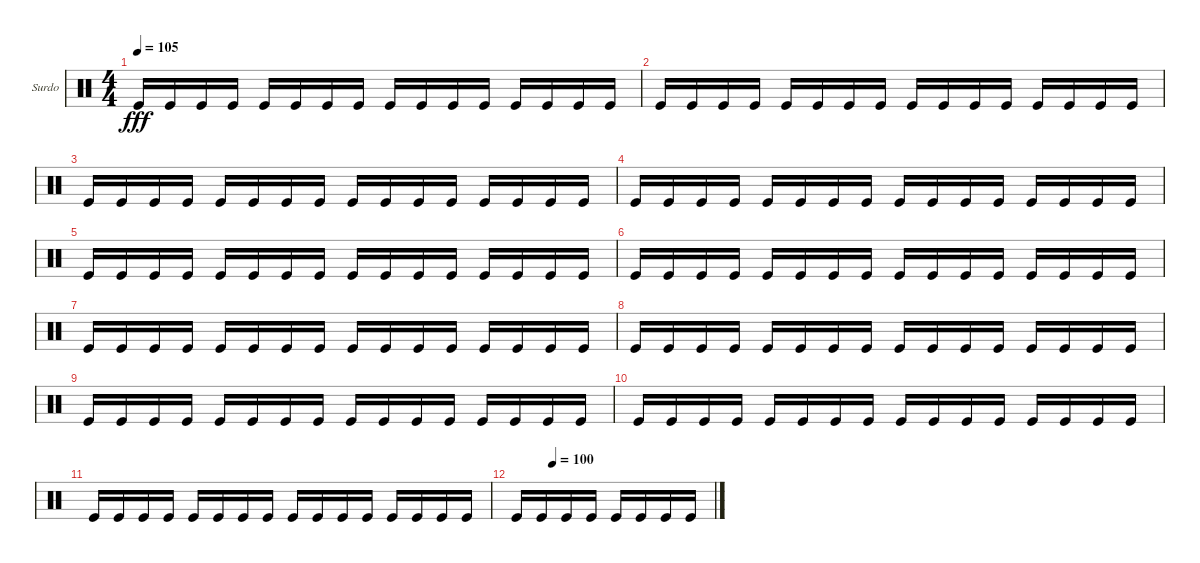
\bracketExtendMode groupsimilarinstruments
\firstSystemTrackNameOrientation horizontal
\otherSystemsTrackNameOrientation horizontal
\track ("Surdo" "Surdo") {instrument percussion}
\staff {score}
\articulation defaults
\ts (4 4)
\tempo 105
\clef neutral
\scale
0.333333
\ks c "Kick (hit)".16{dy fff} "Kick (hit)".16 "Kick (hit)".16 "Kick (hit)".16 "Kick (hit)".16 "Kick (hit)".16 "Kick (hit)".16 "Kick (hit)".16 "Kick (hit)".16 "Kick (hit)".16 "Kick (hit)".16 "Kick (hit)".16 "Kick (hit)".16 "Kick (hit)".16 "Kick (hit)".16 "Kick (hit)".16
|
\scale
0.333333 "Kick (hit)".16 "Kick (hit)".16 "Kick (hit)".16 "Kick (hit)".16 "Kick (hit)".16 "Kick (hit)".16 "Kick (hit)".16 "Kick (hit)".16 "Kick (hit)".16 "Kick (hit)".16 "Kick (hit)".16 "Kick (hit)".16 "Kick (hit)".16 "Kick (hit)".16 "Kick (hit)".16 "Kick (hit)".16 |
\scale
0.333333 "Kick (hit)".16 "Kick (hit)".16 "Kick (hit)".16 "Kick (hit)".16 "Kick (hit)".16 "Kick (hit)".16 "Kick (hit)".16 "Kick (hit)".16 "Kick (hit)".16 "Kick (hit)".16 "Kick (hit)".16 "Kick (hit)".16 "Kick (hit)".16 "Kick (hit)".16 "Kick (hit)".16 "Kick (hit)".16 |
\scale
0.333333 "Kick (hit)".16 "Kick (hit)".16 "Kick (hit)".16 "Kick (hit)".16 "Kick (hit)".16 "Kick (hit)".16 "Kick (hit)".16 "Kick (hit)".16 "Kick (hit)".16 "Kick (hit)".16 "Kick (hit)".16 "Kick (hit)".16 "Kick (hit)".16 "Kick (hit)".16 "Kick (hit)".16 "Kick (hit)".16 |
\scale
0.333333 "Kick (hit)".16 "Kick (hit)".16 "Kick (hit)".16 "Kick (hit)".16 "Kick (hit)".16 "Kick (hit)".16 "Kick (hit)".16 "Kick (hit)".16 "Kick (hit)".16 "Kick (hit)".16 "Kick (hit)".16 "Kick (hit)".16 "Kick (hit)".16 "Kick (hit)".16 "Kick (hit)".16 "Kick (hit)".16 |
\scale
0.333333 "Kick (hit)".16 "Kick (hit)".16 "Kick (hit)".16 "Kick (hit)".16 "Kick (hit)".16 "Kick (hit)".16 "Kick (hit)".16 "Kick (hit)".16 "Kick (hit)".16 "Kick (hit)".16 "Kick (hit)".16 "Kick (hit)".16 "Kick (hit)".16 "Kick (hit)".16 "Kick (hit)".16 "Kick (hit)".16 |
\scale
0.333333 "Kick (hit)".16 "Kick (hit)".16 "Kick (hit)".16 "Kick (hit)".16 "Kick (hit)".16 "Kick (hit)".16 "Kick (hit)".16 "Kick (hit)".16 "Kick (hit)".16 "Kick (hit)".16 "Kick (hit)".16 "Kick (hit)".16 "Kick (hit)".16 "Kick (hit)".16 "Kick (hit)".16 "Kick (hit)".16 |
\scale
0.333333 "Kick (hit)".16 "Kick (hit)".16 "Kick (hit)".16 "Kick (hit)".16 "Kick (hit)".16 "Kick (hit)".16 "Kick (hit)".16 "Kick (hit)".16 "Kick (hit)".16 "Kick (hit)".16 "Kick (hit)".16 "Kick (hit)".16 "Kick (hit)".16 "Kick (hit)".16 "Kick (hit)".16 "Kick (hit)".16 |
\scale
0.333333 "Kick (hit)".16 "Kick (hit)".16 "Kick (hit)".16 "Kick (hit)".16 "Kick (hit)".16 "Kick (hit)".16 "Kick (hit)".16 "Kick (hit)".16 "Kick (hit)".16 "Kick (hit)".16 "Kick (hit)".16 "Kick (hit)".16 "Kick (hit)".16 "Kick (hit)".16 "Kick (hit)".16 "Kick (hit)".16 |
\scale
0.333333 "Kick (hit)".16 "Kick (hit)".16 "Kick (hit)".16 "Kick (hit)".16 "Kick (hit)".16 "Kick (hit)".16 "Kick (hit)".16 "Kick (hit)".16 "Kick (hit)".16 "Kick (hit)".16 "Kick (hit)".16 "Kick (hit)".16 "Kick (hit)".16 "Kick (hit)".16 "Kick (hit)".16 "Kick (hit)".16 |
\scale
0.333333 "Kick (hit)".16 "Kick (hit)".16 "Kick (hit)".16 "Kick (hit)".16 "Kick (hit)".16 "Kick (hit)".16 "Kick (hit)".16 "Kick (hit)".16 "Kick (hit)".16 "Kick (hit)".16 "Kick (hit)".16 "Kick (hit)".16 "Kick (hit)".16 "Kick (hit)".16 "Kick (hit)".16 "Kick (hit)".16 |
\tempo (100 0.1875)
\scale
0.333333 "Kick (hit)".16 "Kick (hit)".16 "Kick (hit)".16 "Kick (hit)".16 "Kick (hit)".16 "Kick (hit)".16 "Kick (hit)".16 "Kick (hit)".16 |
\scale
0.333333 |
\scale
0.333333 |
\scale
0.333333 |
\scale
0.333333
